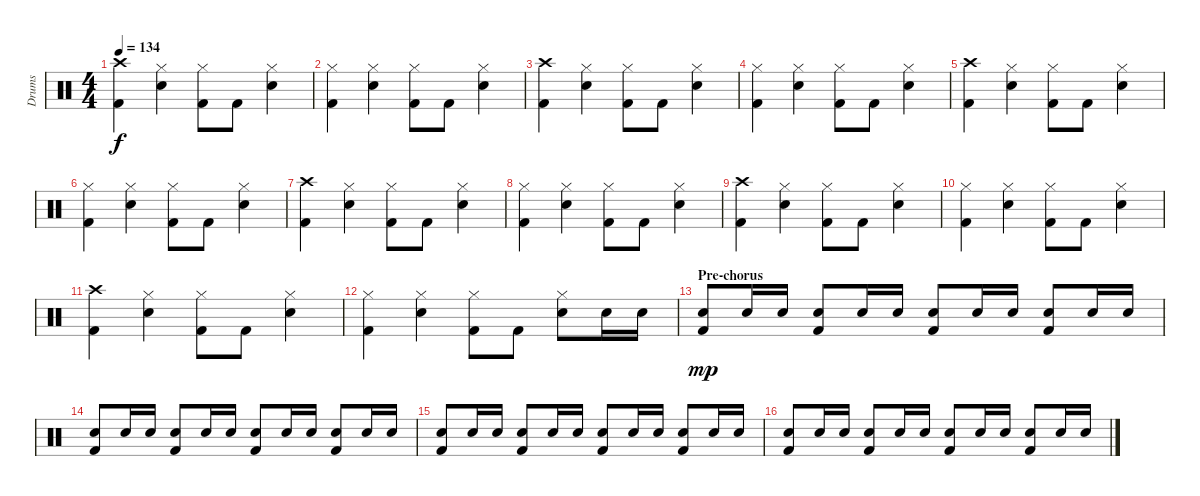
\track ("Drums" "Drums") {instrument percussion}
\staff {score}
\articulation defaults
\ts (4 4)
\tempo 134
\clef neutral
\ks c
("Crash high (hit)" "Kick (hit) 2").4{dy f} ("Hi-Hat (closed)" "Electric Snare (hit)").4 ("Hi-Hat (closed)" "Kick (hit) 2").8 "Kick (hit) 2".8 ("Hi-Hat (closed)" "Electric Snare (hit)").4 |
("Hi-Hat (closed)" "Kick (hit) 2").4 ("Hi-Hat (closed)" "Electric Snare (hit)").4 ("Hi-Hat (closed)" "Kick (hit) 2").8 "Kick (hit) 2".8 ("Hi-Hat (closed)" "Electric Snare (hit)").4 |
("Crash high (hit)" "Kick (hit) 2").4 ("Hi-Hat (closed)" "Electric Snare (hit)").4 ("Hi-Hat (closed)" "Kick (hit) 2").8 "Kick (hit) 2".8 ("Hi-Hat (closed)" "Electric Snare (hit)").4 |
("Hi-Hat (closed)" "Kick (hit) 2").4 ("Hi-Hat (closed)" "Electric Snare (hit)").4 ("Hi-Hat (closed)" "Kick (hit) 2").8 "Kick (hit) 2".8 ("Hi-Hat (closed)" "Electric Snare (hit)").4 |
("Crash high (hit)" "Kick (hit) 2").4 ("Hi-Hat (closed)" "Electric Snare (hit)").4 ("Hi-Hat (closed)" "Kick (hit) 2").8 "Kick (hit) 2".8 ("Hi-Hat (closed)" "Electric Snare (hit)").4 |
("Hi-Hat (closed)" "Kick (hit) 2").4 ("Hi-Hat (closed)" "Electric Snare (hit)").4 ("Hi-Hat (closed)" "Kick (hit) 2").8 "Kick (hit) 2".8 ("Hi-Hat (closed)" "Electric Snare (hit)").4 |
("Crash high (hit)" "Kick (hit) 2").4 ("Hi-Hat (closed)" "Electric Snare (hit)").4 ("Hi-Hat (closed)" "Kick (hit) 2").8 "Kick (hit) 2".8 ("Hi-Hat (closed)" "Electric Snare (hit)").4 |
("Hi-Hat (closed)" "Kick (hit) 2").4 ("Hi-Hat (closed)" "Electric Snare (hit)").4 ("Hi-Hat (closed)" "Kick (hit) 2").8 "Kick (hit) 2".8 ("Hi-Hat (closed)" "Electric Snare (hit)").4 |
("Crash high (hit)" "Kick (hit) 2").4 ("Hi-Hat (closed)" "Electric Snare (hit)").4 ("Hi-Hat (closed)" "Kick (hit) 2").8 "Kick (hit) 2".8 ("Hi-Hat (closed)" "Electric Snare (hit)").4 |
("Hi-Hat (closed)" "Kick (hit) 2").4 ("Hi-Hat (closed)" "Electric Snare (hit)").4 ("Hi-Hat (closed)" "Kick (hit) 2").8 "Kick (hit) 2".8 ("Hi-Hat (closed)" "Electric Snare (hit)").4 |
("Crash high (hit)" "Kick (hit) 2").4 ("Hi-Hat (closed)" "Electric Snare (hit)").4 ("Hi-Hat (closed)" "Kick (hit) 2").8 "Kick (hit) 2".8 ("Hi-Hat (closed)" "Electric Snare (hit)").4 |
("Hi-Hat (closed)" "Kick (hit) 2").4 ("Hi-Hat (closed)" "Electric Snare (hit)").4 ("Hi-Hat (closed)" "Kick (hit) 2").8 "Kick (hit) 2".8 ("Hi-Hat (closed)" "Electric Snare (hit)").8 "Electric Snare (hit)".16 "Electric Snare (hit)".16 |
\section ("" "Pre-chorus")
("Electric Snare (hit)" "Kick (hit) 2").8{dy mp} "Electric Snare (hit)".16 "Electric Snare (hit)".16 ("Electric Snare (hit)" "Kick (hit) 2").8 "Electric Snare (hit)".16 "Electric Snare (hit)".16 ("Electric Snare (hit)" "Kick (hit) 2").8 "Electric Snare (hit)".16 "Electric Snare (hit)".16 ("Electric Snare (hit)" "Kick (hit) 2").8 "Electric Snare (hit)".16 "Electric Snare (hit)".16 |
("Electric Snare (hit)" "Kick (hit) 2").8 "Electric Snare (hit)".16 "Electric Snare (hit)".16 ("Electric Snare (hit)" "Kick (hit) 2").8 "Electric Snare (hit)".16 "Electric Snare (hit)".16 ("Electric Snare (hit)" "Kick (hit) 2").8 "Electric Snare (hit)".16 "Electric Snare (hit)".16 ("Electric Snare (hit)" "Kick (hit) 2").8 "Electric Snare (hit)".16 "Electric Snare (hit)".16 |
("Electric Snare (hit)" "Kick (hit) 2").8 "Electric Snare (hit)".16 "Electric Snare (hit)".16 ("Electric Snare (hit)" "Kick (hit) 2").8 "Electric Snare (hit)".16 "Electric Snare (hit)".16 ("Electric Snare (hit)" "Kick (hit) 2").8 "Electric Snare (hit)".16 "Electric Snare (hit)".16 ("Electric Snare (hit)" "Kick (hit) 2").8 "Electric Snare (hit)".16 "Electric Snare (hit)".16 |
("Electric Snare (hit)" "Kick (hit) 2").8 "Electric Snare (hit)".16 "Electric Snare (hit)".16 ("Electric Snare (hit)" "Kick (hit) 2").8 "Electric Snare (hit)".16 "Electric Snare (hit)".16 ("Electric Snare (hit)" "Kick (hit) 2").8 "Electric Snare (hit)".16 "Electric Snare (hit)".16 ("Electric Snare (hit)" "Kick (hit) 2").8 "Electric Snare (hit)".16 "Electric Snare (hit)".16
